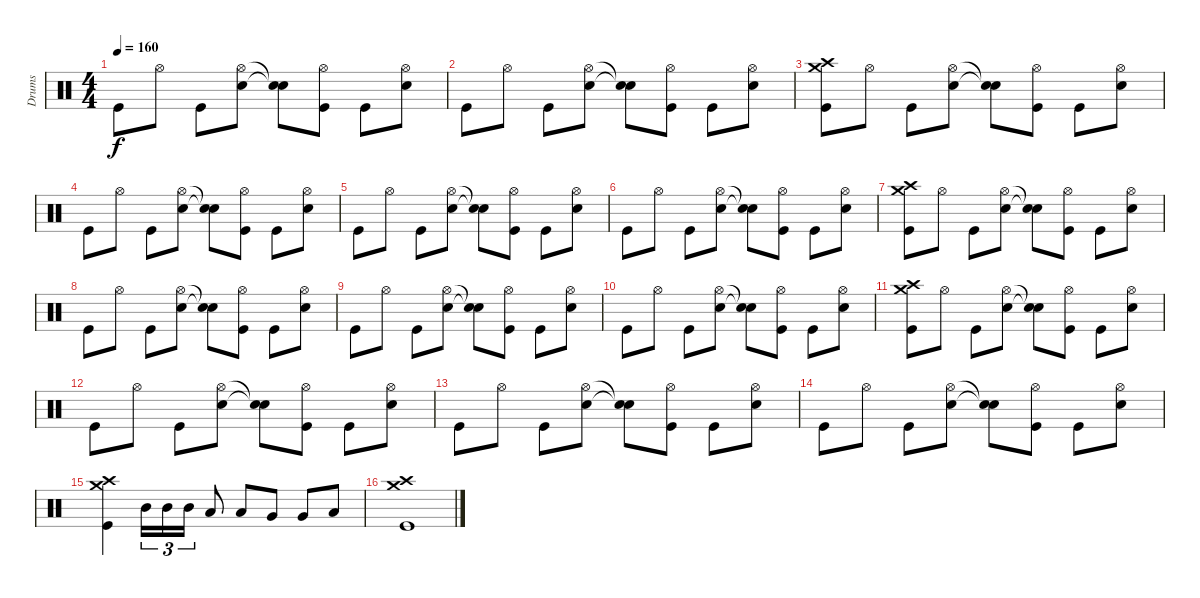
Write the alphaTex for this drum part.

\track ("Drums" "Drums") {instrument percussion}
\staff {score}
\articulation defaults
\ts (4 4)
\tempo 160
\clef neutral
\ks c "Kick (hit)".8{dy f} "Hi-Hat (open)".8 "Kick (hit)".8
("Hi-Hat (open)" "Electric Snare (hit)").8 ("Snare (hit)"{t} "Snare (hit)"{t}).8 ("Kick (hit)" "Hi-Hat (open)").8 "Kick (hit)".8 ("Hi-Hat (open)" "Electric Snare (hit)").8 |
"Kick (hit)".8 "Hi-Hat (open)".8 "Kick (hit)".8 ("Hi-Hat (open)" "Electric Snare (hit)").8 ("Snare (hit)"{t} "Snare (hit)"{t}).8 ("Kick (hit)" "Hi-Hat (open)").8 "Kick (hit)".8 ("Hi-Hat (open)" "Electric Snare (hit)").8 |
("Kick (hit)" "Crash medium (hit)" "Crash high (hit)").8 "Hi-Hat (open)".8 "Kick (hit)".8 ("Hi-Hat (open)" "Electric Snare (hit)").8 ("Snare (hit)"{t} "Snare (hit)"{t}).8 ("Kick (hit)" "Hi-Hat (open)").8 "Kick (hit)".8 ("Hi-Hat (open)" "Electric Snare (hit)").8 |
"Kick (hit)".8 "Hi-Hat (open)".8 "Kick (hit)".8 ("Hi-Hat (open)" "Electric Snare (hit)").8 ("Snare (hit)"{t} "Snare (hit)"{t}).8 ("Kick (hit)" "Hi-Hat (open)").8 "Kick (hit)".8 ("Hi-Hat (open)" "Electric Snare (hit)").8 |
"Kick (hit)".8 "Hi-Hat (open)".8 "Kick (hit)".8 ("Hi-Hat (open)" "Electric Snare (hit)").8 ("Snare (hit)"{t} "Snare (hit)"{t}).8 ("Kick (hit)" "Hi-Hat (open)").8 "Kick (hit)".8 ("Hi-Hat (open)" "Electric Snare (hit)").8 |
"Kick (hit)".8 "Hi-Hat (open)".8 "Kick (hit)".8 ("Hi-Hat (open)" "Electric Snare (hit)").8 ("Snare (hit)"{t} "Snare (hit)"{t}).8 ("Kick (hit)" "Hi-Hat (open)").8 "Kick (hit)".8 ("Hi-Hat (open)" "Electric Snare (hit)").8 |
("Kick (hit)" "Crash medium (hit)" "Crash high (hit)").8 "Hi-Hat (open)".8 "Kick (hit)".8 ("Hi-Hat (open)" "Electric Snare (hit)").8 ("Snare (hit)"{t} "Snare (hit)"{t}).8 ("Kick (hit)" "Hi-Hat (open)").8 "Kick (hit)".8 ("Hi-Hat (open)" "Electric Snare (hit)").8 |
"Kick (hit)".8 "Hi-Hat (open)".8 "Kick (hit)".8 ("Hi-Hat (open)" "Electric Snare (hit)").8 ("Snare (hit)"{t} "Snare (hit)"{t}).8 ("Kick (hit)" "Hi-Hat (open)").8 "Kick (hit)".8 ("Hi-Hat (open)" "Electric Snare (hit)").8 |
"Kick (hit)".8 "Hi-Hat (open)".8 "Kick (hit)".8 ("Hi-Hat (open)" "Electric Snare (hit)").8 ("Snare (hit)"{t} "Snare (hit)"{t}).8 ("Kick (hit)" "Hi-Hat (open)").8 "Kick (hit)".8 ("Hi-Hat (open)" "Electric Snare (hit)").8 |
"Kick (hit)".8 "Hi-Hat (open)".8 "Kick (hit)".8 ("Hi-Hat (open)" "Electric Snare (hit)").8 ("Snare (hit)"{t} "Snare (hit)"{t}).8 ("Kick (hit)" "Hi-Hat (open)").8 "Kick (hit)".8 ("Hi-Hat (open)" "Electric Snare (hit)").8 |
("Kick (hit)" "Crash medium (hit)" "Crash high (hit)").8 "Hi-Hat (open)".8 "Kick (hit)".8 ("Hi-Hat (open)" "Electric Snare (hit)").8 ("Snare (hit)"{t} "Snare (hit)"{t}).8 ("Kick (hit)" "Hi-Hat (open)").8 "Kick (hit)".8 ("Hi-Hat (open)" "Electric Snare (hit)").8 |
"Kick (hit)".8 "Hi-Hat (open)".8 "Kick (hit)".8 ("Hi-Hat (open)" "Electric Snare (hit)").8 ("Snare (hit)"{t} "Snare (hit)"{t}).8 ("Kick (hit)" "Hi-Hat (open)").8 "Kick (hit)".8 ("Hi-Hat (open)" "Electric Snare (hit)").8 |
"Kick (hit)".8 "Hi-Hat (open)".8 "Kick (hit)".8 ("Hi-Hat (open)" "Electric Snare (hit)").8 ("Snare (hit)"{t} "Snare (hit)"{t}).8 ("Kick (hit)" "Hi-Hat (open)").8 "Kick (hit)".8 ("Hi-Hat (open)" "Electric Snare (hit)").8 |
"Kick (hit)".8 "Hi-Hat (open)".8 "Kick (hit)".8 ("Hi-Hat (open)" "Electric Snare (hit)").8 ("Snare (hit)"{t} "Snare (hit)"{t}).8 ("Kick (hit)" "Hi-Hat (open)").8 "Kick (hit)".8 ("Hi-Hat (open)" "Electric Snare (hit)").8 |
("Kick (hit)" "Crash medium (hit)" "Crash high (hit)").4 "Mid Tom (hit)".16{tu (3 2)} "Mid Tom (hit)".16{tu (3 2)} "Mid Tom (hit)".16{tu (3 2)} "Low Tom (hit)".8 "Low Tom (hit)".8 "Very Low Tom (hit)".8 "Very Low Tom (hit)".8 "Low Floor Tom (hit)".8 |
("Kick (hit)" "Crash medium (hit)" "Crash high (hit)").1
